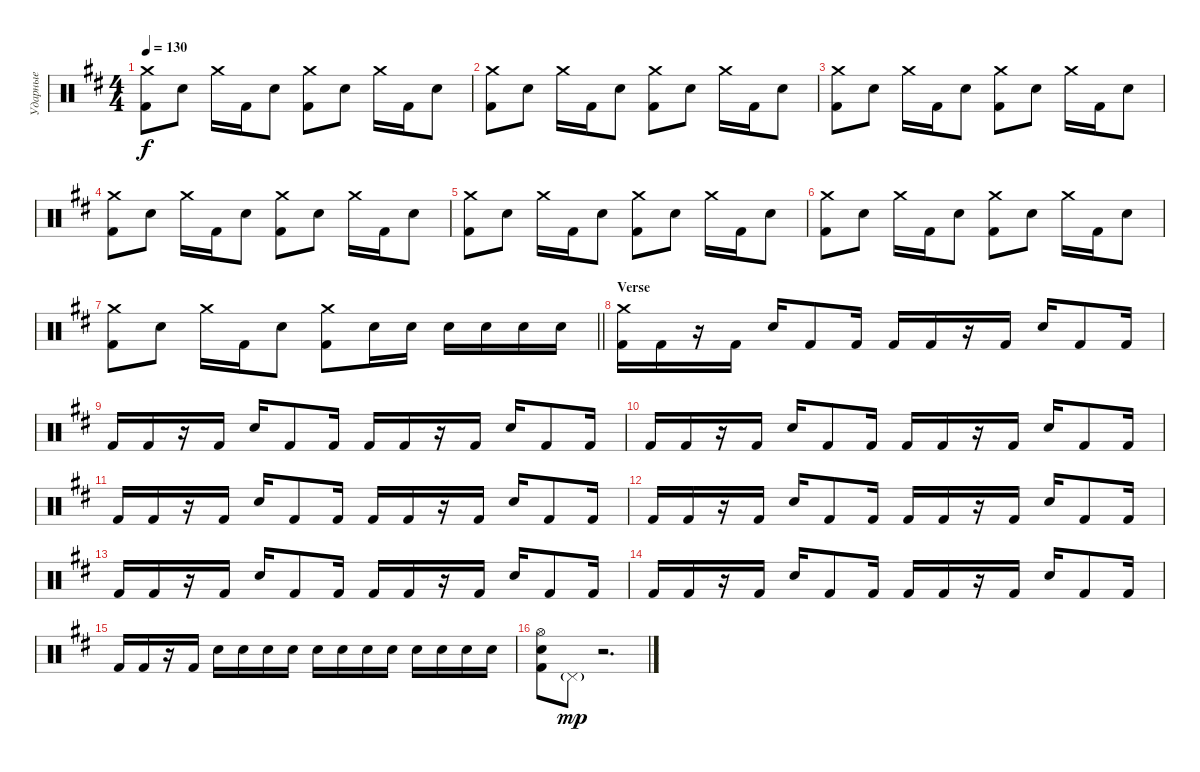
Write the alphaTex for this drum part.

\track ("Ударные" "Ударные") {instrument percussion}
\staff {score}
\articulation defaults
\ts (4 4)
\tempo 130
\clef neutral
\ks d
("Crash medium (hit)" "Kick (hit) 2").8{dy f} "Electric Snare (hit)".8 "Crash medium (hit)".16 "Kick (hit) 2".16 "Electric Snare (hit)".8 ("Crash medium (hit)" "Kick (hit) 2").8 "Electric Snare (hit)".8 "Crash medium (hit)".16 "Kick (hit) 2".16 "Electric Snare (hit)".8 |
("Crash medium (hit)" "Kick (hit) 2").8 "Electric Snare (hit)".8 "Crash medium (hit)".16 "Kick (hit) 2".16 "Electric Snare (hit)".8 ("Crash medium (hit)" "Kick (hit) 2").8 "Electric Snare (hit)".8 "Crash medium (hit)".16 "Kick (hit) 2".16 "Electric Snare (hit)".8 |
("Crash medium (hit)" "Kick (hit) 2").8 "Electric Snare (hit)".8 "Crash medium (hit)".16 "Kick (hit) 2".16 "Electric Snare (hit)".8 ("Crash medium (hit)" "Kick (hit) 2").8 "Electric Snare (hit)".8 "Crash medium (hit)".16 "Kick (hit) 2".16 "Electric Snare (hit)".8 |
("Crash medium (hit)" "Kick (hit) 2").8 "Electric Snare (hit)".8 "Crash medium (hit)".16 "Kick (hit) 2".16 "Electric Snare (hit)".8 ("Crash medium (hit)" "Kick (hit) 2").8 "Electric Snare (hit)".8 "Crash medium (hit)".16 "Kick (hit) 2".16 "Electric Snare (hit)".8 |
("Crash medium (hit)" "Kick (hit) 2").8 "Electric Snare (hit)".8 "Crash medium (hit)".16 "Kick (hit) 2".16 "Electric Snare (hit)".8 ("Crash medium (hit)" "Kick (hit) 2").8 "Electric Snare (hit)".8 "Crash medium (hit)".16 "Kick (hit) 2".16 "Electric Snare (hit)".8 |
("Crash medium (hit)" "Kick (hit) 2").8 "Electric Snare (hit)".8 "Crash medium (hit)".16 "Kick (hit) 2".16 "Electric Snare (hit)".8 ("Crash medium (hit)" "Kick (hit) 2").8 "Electric Snare (hit)".8 "Crash medium (hit)".16 "Kick (hit) 2".16 "Electric Snare (hit)".8 |
\barLineRight lightlight
("Crash medium (hit)" "Kick (hit) 2").8 "Electric Snare (hit)".8 "Crash medium (hit)".16 "Kick (hit) 2".16 "Electric Snare (hit)".8 ("Crash medium (hit)" "Kick (hit) 2").8 "Electric Snare (hit)".16 "Electric Snare (hit)".16 "Electric Snare (hit)".16 "Electric Snare (hit)".16 "Electric Snare (hit)".16 "Electric Snare (hit)".16 |
\section ("" "Verse")
("Crash medium (hit)" "Kick (hit) 2").16 "Kick (hit) 2".16 r.16 "Kick (hit) 2".16 "Electric Snare (hit)".16 "Kick (hit) 2".8 "Kick (hit) 2".16 "Kick (hit) 2".16 "Kick (hit) 2".16 r.16 "Kick (hit) 2".16 "Electric Snare (hit)".16 "Kick (hit) 2".8 "Kick (hit) 2".16 |
"Kick (hit) 2".16 "Kick (hit) 2".16 r.16 "Kick (hit) 2".16 "Electric Snare (hit)".16 "Kick (hit) 2".8 "Kick (hit) 2".16 "Kick (hit) 2".16 "Kick (hit) 2".16 r.16 "Kick (hit) 2".16 "Electric Snare (hit)".16 "Kick (hit) 2".8 "Kick (hit) 2".16 |
"Kick (hit) 2".16 "Kick (hit) 2".16 r.16 "Kick (hit) 2".16 "Electric Snare (hit)".16 "Kick (hit) 2".8 "Kick (hit) 2".16 "Kick (hit) 2".16 "Kick (hit) 2".16 r.16 "Kick (hit) 2".16 "Electric Snare (hit)".16 "Kick (hit) 2".8 "Kick (hit) 2".16 |
"Kick (hit) 2".16 "Kick (hit) 2".16 r.16 "Kick (hit) 2".16 "Electric Snare (hit)".16 "Kick (hit) 2".8 "Kick (hit) 2".16 "Kick (hit) 2".16 "Kick (hit) 2".16 r.16 "Kick (hit) 2".16 "Electric Snare (hit)".16 "Kick (hit) 2".8 "Kick (hit) 2".16 |
"Kick (hit) 2".16 "Kick (hit) 2".16 r.16 "Kick (hit) 2".16 "Electric Snare (hit)".16 "Kick (hit) 2".8 "Kick (hit) 2".16 "Kick (hit) 2".16 "Kick (hit) 2".16 r.16 "Kick (hit) 2".16 "Electric Snare (hit)".16 "Kick (hit) 2".8 "Kick (hit) 2".16 |
"Kick (hit) 2".16 "Kick (hit) 2".16 r.16 "Kick (hit) 2".16 "Electric Snare (hit)".16 "Kick (hit) 2".8 "Kick (hit) 2".16 "Kick (hit) 2".16 "Kick (hit) 2".16 r.16 "Kick (hit) 2".16 "Electric Snare (hit)".16 "Kick (hit) 2".8 "Kick (hit) 2".16 |
"Kick (hit) 2".16 "Kick (hit) 2".16 r.16 "Kick (hit) 2".16 "Electric Snare (hit)".16 "Kick (hit) 2".8 "Kick (hit) 2".16 "Kick (hit) 2".16 "Kick (hit) 2".16 r.16 "Kick (hit) 2".16 "Electric Snare (hit)".16 "Kick (hit) 2".8 "Kick (hit) 2".16 |
"Kick (hit) 2".16 "Kick (hit) 2".16 r.16 "Kick (hit) 2".16 "Electric Snare (hit)".16 "Electric Snare (hit)".16 "Electric Snare (hit)".16 "Electric Snare (hit)".16 "Electric Snare (hit)".16 "Electric Snare (hit)".16 "Electric Snare (hit)".16 "Electric Snare (hit)".16 "Electric Snare (hit)".16 "Electric Snare (hit)".16 "Electric Snare (hit)".16 "Electric Snare (hit)".16 |
("Hi-Hat (open)" "Electric Snare (hit)" "Kick (hit) 2").8 "Pedal Hi-Hat (hit)"{g}.8{dy mp} r.2{d}
